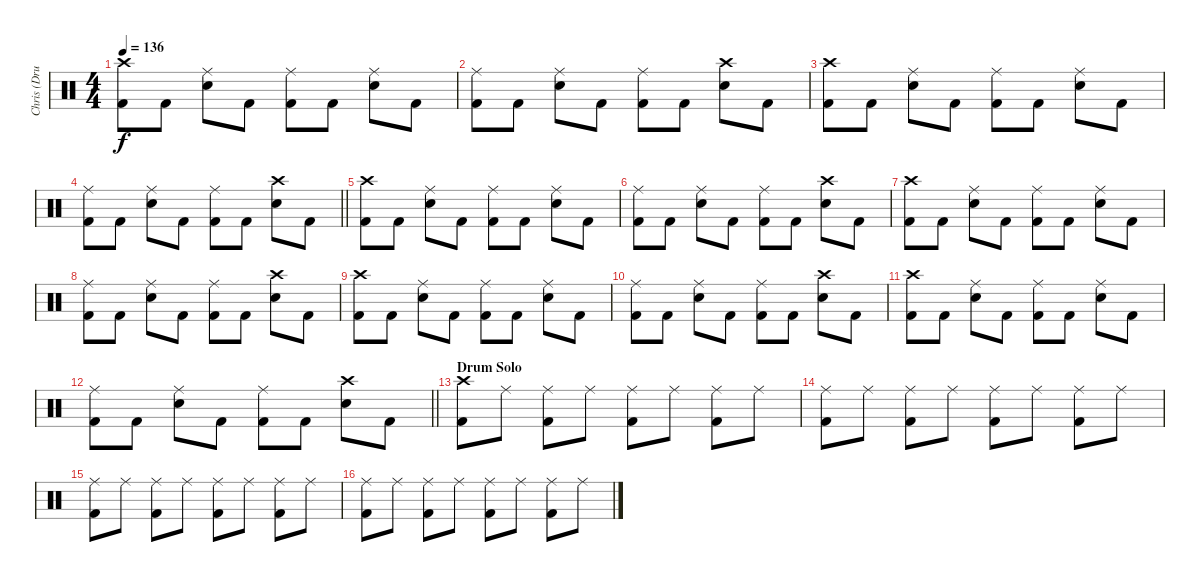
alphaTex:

\track ("Chris (Drums)" "Chris (Dru") {instrument percussion}
\staff {score}
\articulation defaults
\ts (4 4)
\tempo 136
\clef neutral
\ks c
("Crash high (hit)" "Kick (hit) 2").8{dy f} "Kick (hit) 2".8 ("Ride (middle)" "Snare (hit) 2").8 "Kick (hit) 2".8 ("Ride (middle)" "Kick (hit) 2").8 "Kick (hit) 2".8 ("Ride (middle)" "Snare (hit) 2").8 "Kick (hit) 2".8 |
("Ride (middle)" "Kick (hit) 2").8 "Kick (hit) 2".8 ("Ride (middle)" "Snare (hit) 2").8 "Kick (hit) 2".8 ("Ride (middle)" "Kick (hit) 2").8 "Kick (hit) 2".8 ("Crash high (hit)" "Snare (hit) 2").8 "Kick (hit) 2".8 |
("Crash high (hit)" "Kick (hit) 2").8 "Kick (hit) 2".8 ("Ride (middle)" "Snare (hit) 2").8 "Kick (hit) 2".8 ("Ride (middle)" "Kick (hit) 2").8 "Kick (hit) 2".8 ("Ride (middle)" "Snare (hit) 2").8 "Kick (hit) 2".8 |
\barLineRight lightlight
("Ride (middle)" "Kick (hit) 2").8 "Kick (hit) 2".8 ("Ride (middle)" "Snare (hit) 2").8 "Kick (hit) 2".8 ("Ride (middle)" "Kick (hit) 2").8 "Kick (hit) 2".8 ("Crash high (hit)" "Snare (hit) 2").8 "Kick (hit) 2".8 |
("Crash high (hit)" "Kick (hit) 2").8 "Kick (hit) 2".8 ("Ride (middle)" "Snare (hit) 2").8 "Kick (hit) 2".8 ("Ride (middle)" "Kick (hit) 2").8 "Kick (hit) 2".8 ("Ride (middle)" "Snare (hit) 2").8 "Kick (hit) 2".8 |
("Ride (middle)" "Kick (hit) 2").8 "Kick (hit) 2".8 ("Ride (middle)" "Snare (hit) 2").8 "Kick (hit) 2".8 ("Ride (middle)" "Kick (hit) 2").8 "Kick (hit) 2".8 ("Crash high (hit)" "Snare (hit) 2").8 "Kick (hit) 2".8 |
("Crash high (hit)" "Kick (hit) 2").8 "Kick (hit) 2".8 ("Ride (middle)" "Snare (hit) 2").8 "Kick (hit) 2".8 ("Ride (middle)" "Kick (hit) 2").8 "Kick (hit) 2".8 ("Ride (middle)" "Snare (hit) 2").8 "Kick (hit) 2".8 |
("Ride (middle)" "Kick (hit) 2").8 "Kick (hit) 2".8 ("Ride (middle)" "Snare (hit) 2").8 "Kick (hit) 2".8 ("Ride (middle)" "Kick (hit) 2").8 "Kick (hit) 2".8 ("Crash high (hit)" "Snare (hit) 2").8 "Kick (hit) 2".8 |
("Crash high (hit)" "Kick (hit) 2").8 "Kick (hit) 2".8 ("Ride (middle)" "Snare (hit) 2").8 "Kick (hit) 2".8 ("Ride (middle)" "Kick (hit) 2").8 "Kick (hit) 2".8 ("Ride (middle)" "Snare (hit) 2").8 "Kick (hit) 2".8 |
("Ride (middle)" "Kick (hit) 2").8 "Kick (hit) 2".8 ("Ride (middle)" "Snare (hit) 2").8 "Kick (hit) 2".8 ("Ride (middle)" "Kick (hit) 2").8 "Kick (hit) 2".8 ("Crash high (hit)" "Snare (hit) 2").8 "Kick (hit) 2".8 |
("Crash high (hit)" "Kick (hit) 2").8 "Kick (hit) 2".8 ("Ride (middle)" "Snare (hit) 2").8 "Kick (hit) 2".8 ("Ride (middle)" "Kick (hit) 2").8 "Kick (hit) 2".8 ("Ride (middle)" "Snare (hit) 2").8 "Kick (hit) 2".8 |
\barLineRight lightlight
("Ride (middle)" "Kick (hit) 2").8 "Kick (hit) 2".8 ("Ride (middle)" "Snare (hit) 2").8 "Kick (hit) 2".8 ("Ride (middle)" "Kick (hit) 2").8 "Kick (hit) 2".8 ("Crash high (hit)" "Snare (hit) 2").8 "Kick (hit) 2".8 |
\section ("" "Drum Solo")
("Crash high (hit)" "Kick (hit) 2").8 "Ride (middle)".8 ("Ride (middle)" "Kick (hit) 2").8 "Ride (middle)".8 ("Ride (middle)" "Kick (hit) 2").8 "Ride (middle)".8 ("Ride (middle)" "Kick (hit) 2").8 "Ride (middle)".8 |
("Ride (middle)" "Kick (hit) 2").8 "Ride (middle)".8 ("Ride (middle)" "Kick (hit) 2").8 "Ride (middle)".8 ("Ride (middle)" "Kick (hit) 2").8 "Ride (middle)".8 ("Ride (middle)" "Kick (hit) 2").8 "Ride (middle)".8 |
("Ride (middle)" "Kick (hit) 2").8 "Ride (middle)".8 ("Ride (middle)" "Kick (hit) 2").8 "Ride (middle)".8 ("Ride (middle)" "Kick (hit) 2").8 "Ride (middle)".8 ("Ride (middle)" "Kick (hit) 2").8 "Ride (middle)".8 |
("Ride (middle)" "Kick (hit) 2").8 "Ride (middle)".8 ("Ride (middle)" "Kick (hit) 2").8 "Ride (middle)".8 ("Ride (middle)" "Kick (hit) 2").8 "Ride (middle)".8 ("Ride (middle)" "Kick (hit) 2").8 "Ride (middle)".8
